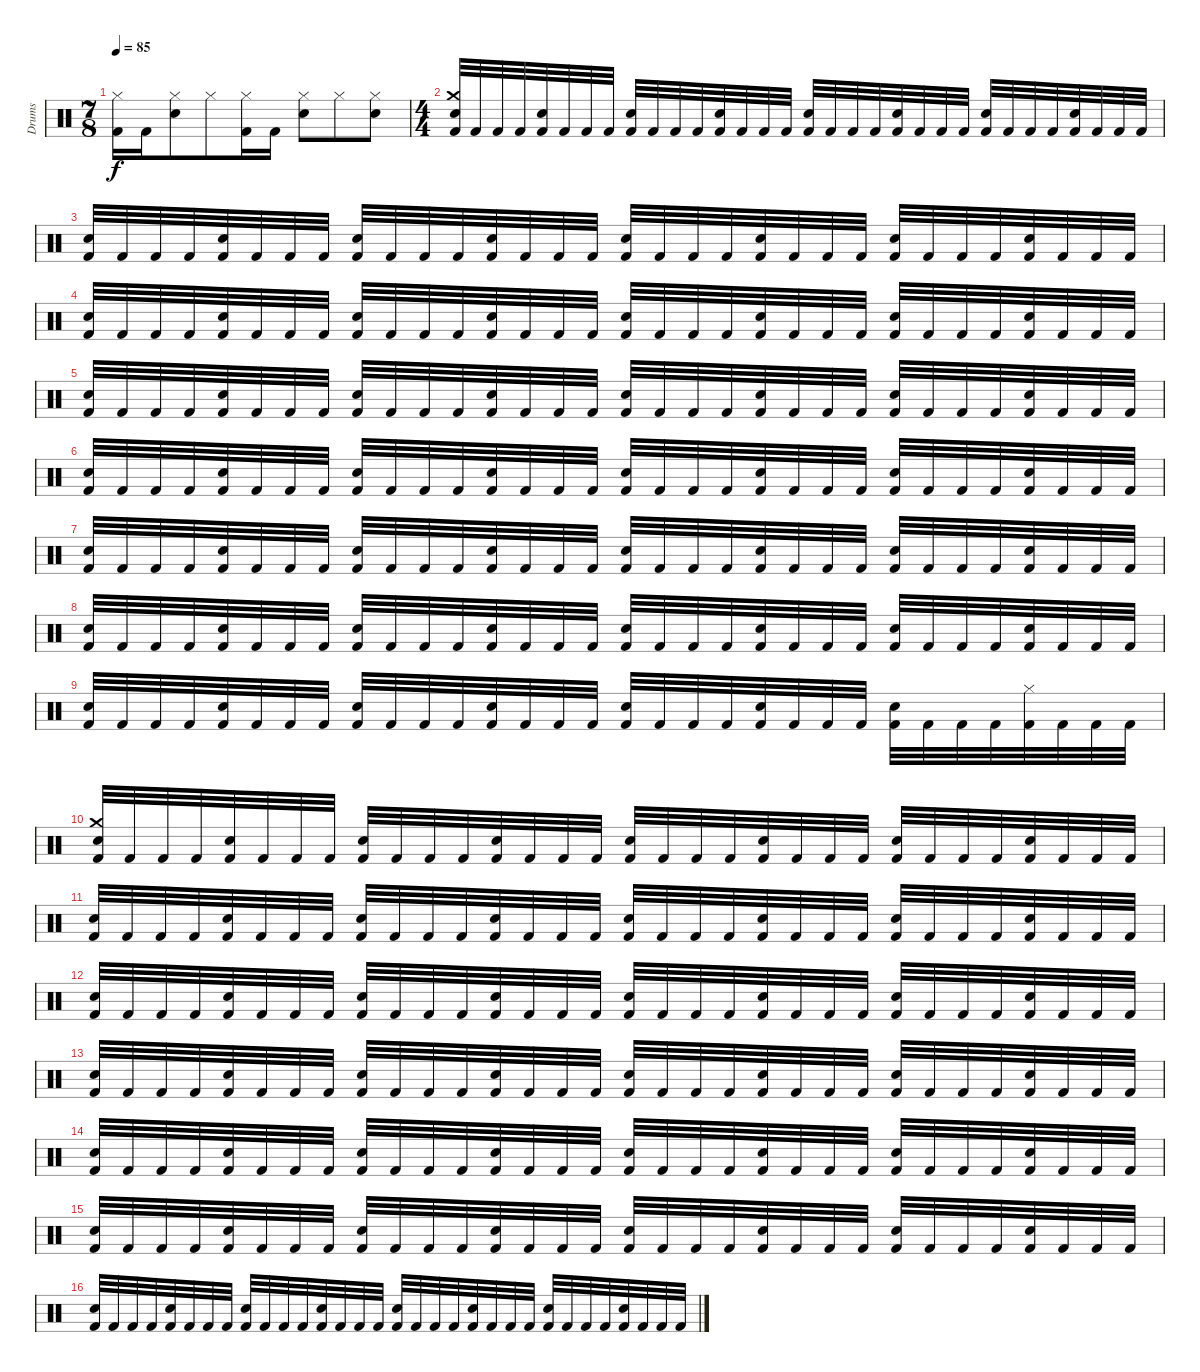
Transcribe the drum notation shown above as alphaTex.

\track ("Drums" "Drums") {instrument percussion}
\staff {score}
\articulation defaults
\ts (7 8)
\tempo 85
\clef neutral
\ks c
("Hi-Hat (closed)" "Kick (hit) 2").16{dy f} "Kick (hit) 2".16 ("Hi-Hat (closed)" "Snare (hit) 2").8 "Hi-Hat (closed)".8 ("Hi-Hat (closed)" "Kick (hit) 2").16 "Kick (hit) 2".16 ("Hi-Hat (closed)" "Snare (hit) 2").8 "Hi-Hat (closed)".8 ("Hi-Hat (closed)" "Snare (hit) 2").8 |
\ts (4 4)
("Crash medium (hit)" "Electric Snare (hit)" "Kick (hit) 2").32 "Kick (hit) 2".32 "Kick (hit) 2".32 "Kick (hit) 2".32 ("Electric Snare (hit)" "Kick (hit) 2").32 "Kick (hit) 2".32 "Kick (hit) 2".32 "Kick (hit) 2".32 ("Electric Snare (hit)" "Kick (hit) 2").32 "Kick (hit) 2".32 "Kick (hit) 2".32 "Kick (hit) 2".32 ("Electric Snare (hit)" "Kick (hit) 2").32 "Kick (hit) 2".32 "Kick (hit) 2".32 "Kick (hit) 2".32 ("Electric Snare (hit)" "Kick (hit) 2").32 "Kick (hit) 2".32 "Kick (hit) 2".32 "Kick (hit) 2".32 ("Electric Snare (hit)" "Kick (hit) 2").32 "Kick (hit) 2".32 "Kick (hit) 2".32 "Kick (hit) 2".32 ("Electric Snare (hit)" "Kick (hit) 2").32 "Kick (hit) 2".32 "Kick (hit) 2".32 "Kick (hit) 2".32 ("Electric Snare (hit)" "Kick (hit) 2").32 "Kick (hit) 2".32 "Kick (hit) 2".32 "Kick (hit) 2".32 |
("Electric Snare (hit)" "Kick (hit) 2").32 "Kick (hit) 2".32 "Kick (hit) 2".32 "Kick (hit) 2".32 ("Electric Snare (hit)" "Kick (hit) 2").32 "Kick (hit) 2".32 "Kick (hit) 2".32 "Kick (hit) 2".32 ("Electric Snare (hit)" "Kick (hit) 2").32 "Kick (hit) 2".32 "Kick (hit) 2".32 "Kick (hit) 2".32 ("Electric Snare (hit)" "Kick (hit) 2").32 "Kick (hit) 2".32 "Kick (hit) 2".32 "Kick (hit) 2".32 ("Electric Snare (hit)" "Kick (hit) 2").32 "Kick (hit) 2".32 "Kick (hit) 2".32 "Kick (hit) 2".32 ("Electric Snare (hit)" "Kick (hit) 2").32 "Kick (hit) 2".32 "Kick (hit) 2".32 "Kick (hit) 2".32 ("Electric Snare (hit)" "Kick (hit) 2").32 "Kick (hit) 2".32 "Kick (hit) 2".32 "Kick (hit) 2".32 ("Electric Snare (hit)" "Kick (hit) 2").32 "Kick (hit) 2".32 "Kick (hit) 2".32 "Kick (hit) 2".32 |
("Electric Snare (hit)" "Kick (hit) 2").32 "Kick (hit) 2".32 "Kick (hit) 2".32 "Kick (hit) 2".32 ("Electric Snare (hit)" "Kick (hit) 2").32 "Kick (hit) 2".32 "Kick (hit) 2".32 "Kick (hit) 2".32 ("Electric Snare (hit)" "Kick (hit) 2").32 "Kick (hit) 2".32 "Kick (hit) 2".32 "Kick (hit) 2".32 ("Electric Snare (hit)" "Kick (hit) 2").32 "Kick (hit) 2".32 "Kick (hit) 2".32 "Kick (hit) 2".32 ("Electric Snare (hit)" "Kick (hit) 2").32 "Kick (hit) 2".32 "Kick (hit) 2".32 "Kick (hit) 2".32 ("Electric Snare (hit)" "Kick (hit) 2").32 "Kick (hit) 2".32 "Kick (hit) 2".32 "Kick (hit) 2".32 ("Electric Snare (hit)" "Kick (hit) 2").32 "Kick (hit) 2".32 "Kick (hit) 2".32 "Kick (hit) 2".32 ("Electric Snare (hit)" "Kick (hit) 2").32 "Kick (hit) 2".32 "Kick (hit) 2".32 "Kick (hit) 2".32 |
("Electric Snare (hit)" "Kick (hit) 2").32 "Kick (hit) 2".32 "Kick (hit) 2".32 "Kick (hit) 2".32 ("Electric Snare (hit)" "Kick (hit) 2").32 "Kick (hit) 2".32 "Kick (hit) 2".32 "Kick (hit) 2".32 ("Electric Snare (hit)" "Kick (hit) 2").32 "Kick (hit) 2".32 "Kick (hit) 2".32 "Kick (hit) 2".32 ("Electric Snare (hit)" "Kick (hit) 2").32 "Kick (hit) 2".32 "Kick (hit) 2".32 "Kick (hit) 2".32 ("Electric Snare (hit)" "Kick (hit) 2").32 "Kick (hit) 2".32 "Kick (hit) 2".32 "Kick (hit) 2".32 ("Electric Snare (hit)" "Kick (hit) 2").32 "Kick (hit) 2".32 "Kick (hit) 2".32 "Kick (hit) 2".32 ("Electric Snare (hit)" "Kick (hit) 2").32 "Kick (hit) 2".32 "Kick (hit) 2".32 "Kick (hit) 2".32 ("Electric Snare (hit)" "Kick (hit) 2").32 "Kick (hit) 2".32 "Kick (hit) 2".32 "Kick (hit) 2".32 |
("Electric Snare (hit)" "Kick (hit) 2").32 "Kick (hit) 2".32 "Kick (hit) 2".32 "Kick (hit) 2".32 ("Electric Snare (hit)" "Kick (hit) 2").32 "Kick (hit) 2".32 "Kick (hit) 2".32 "Kick (hit) 2".32 ("Electric Snare (hit)" "Kick (hit) 2").32 "Kick (hit) 2".32 "Kick (hit) 2".32 "Kick (hit) 2".32 ("Electric Snare (hit)" "Kick (hit) 2").32 "Kick (hit) 2".32 "Kick (hit) 2".32 "Kick (hit) 2".32 ("Electric Snare (hit)" "Kick (hit) 2").32 "Kick (hit) 2".32 "Kick (hit) 2".32 "Kick (hit) 2".32 ("Electric Snare (hit)" "Kick (hit) 2").32 "Kick (hit) 2".32 "Kick (hit) 2".32 "Kick (hit) 2".32 ("Electric Snare (hit)" "Kick (hit) 2").32 "Kick (hit) 2".32 "Kick (hit) 2".32 "Kick (hit) 2".32 ("Electric Snare (hit)" "Kick (hit) 2").32 "Kick (hit) 2".32 "Kick (hit) 2".32 "Kick (hit) 2".32 |
("Electric Snare (hit)" "Kick (hit) 2").32 "Kick (hit) 2".32 "Kick (hit) 2".32 "Kick (hit) 2".32 ("Electric Snare (hit)" "Kick (hit) 2").32 "Kick (hit) 2".32 "Kick (hit) 2".32 "Kick (hit) 2".32 ("Electric Snare (hit)" "Kick (hit) 2").32 "Kick (hit) 2".32 "Kick (hit) 2".32 "Kick (hit) 2".32 ("Electric Snare (hit)" "Kick (hit) 2").32 "Kick (hit) 2".32 "Kick (hit) 2".32 "Kick (hit) 2".32 ("Electric Snare (hit)" "Kick (hit) 2").32 "Kick (hit) 2".32 "Kick (hit) 2".32 "Kick (hit) 2".32 ("Electric Snare (hit)" "Kick (hit) 2").32 "Kick (hit) 2".32 "Kick (hit) 2".32 "Kick (hit) 2".32 ("Electric Snare (hit)" "Kick (hit) 2").32 "Kick (hit) 2".32 "Kick (hit) 2".32 "Kick (hit) 2".32 ("Electric Snare (hit)" "Kick (hit) 2").32 "Kick (hit) 2".32 "Kick (hit) 2".32 "Kick (hit) 2".32 |
("Electric Snare (hit)" "Kick (hit) 2").32 "Kick (hit) 2".32 "Kick (hit) 2".32 "Kick (hit) 2".32 ("Electric Snare (hit)" "Kick (hit) 2").32 "Kick (hit) 2".32 "Kick (hit) 2".32 "Kick (hit) 2".32 ("Electric Snare (hit)" "Kick (hit) 2").32 "Kick (hit) 2".32 "Kick (hit) 2".32 "Kick (hit) 2".32 ("Electric Snare (hit)" "Kick (hit) 2").32 "Kick (hit) 2".32 "Kick (hit) 2".32 "Kick (hit) 2".32 ("Electric Snare (hit)" "Kick (hit) 2").32 "Kick (hit) 2".32 "Kick (hit) 2".32 "Kick (hit) 2".32 ("Electric Snare (hit)" "Kick (hit) 2").32 "Kick (hit) 2".32 "Kick (hit) 2".32 "Kick (hit) 2".32 ("Electric Snare (hit)" "Kick (hit) 2").32 "Kick (hit) 2".32 "Kick (hit) 2".32 "Kick (hit) 2".32 ("Electric Snare (hit)" "Kick (hit) 2").32 "Kick (hit) 2".32 "Kick (hit) 2".32 "Kick (hit) 2".32 |
("Electric Snare (hit)" "Kick (hit) 2").32 "Kick (hit) 2".32 "Kick (hit) 2".32 "Kick (hit) 2".32 ("Electric Snare (hit)" "Kick (hit) 2").32 "Kick (hit) 2".32 "Kick (hit) 2".32 "Kick (hit) 2".32 ("Electric Snare (hit)" "Kick (hit) 2").32 "Kick (hit) 2".32 "Kick (hit) 2".32 "Kick (hit) 2".32 ("Electric Snare (hit)" "Kick (hit) 2").32 "Kick (hit) 2".32 "Kick (hit) 2".32 "Kick (hit) 2".32 ("Electric Snare (hit)" "Kick (hit) 2").32 "Kick (hit) 2".32 "Kick (hit) 2".32 "Kick (hit) 2".32 ("Electric Snare (hit)" "Kick (hit) 2").32 "Kick (hit) 2".32 "Kick (hit) 2".32 "Kick (hit) 2".32 ("Electric Snare (hit)" "Kick (hit) 2").32 "Kick (hit) 2".32 "Kick (hit) 2".32 "Kick (hit) 2".32 ("Hi-Hat (closed)" "Kick (hit) 2").32 "Kick (hit) 2".32 "Kick (hit) 2".32 "Kick (hit) 2".32 |
("Crash medium (hit)" "Electric Snare (hit)" "Kick (hit) 2").32 "Kick (hit) 2".32 "Kick (hit) 2".32 "Kick (hit) 2".32 ("Electric Snare (hit)" "Kick (hit) 2").32 "Kick (hit) 2".32 "Kick (hit) 2".32 "Kick (hit) 2".32 ("Electric Snare (hit)" "Kick (hit) 2").32 "Kick (hit) 2".32 "Kick (hit) 2".32 "Kick (hit) 2".32 ("Electric Snare (hit)" "Kick (hit) 2").32 "Kick (hit) 2".32 "Kick (hit) 2".32 "Kick (hit) 2".32 ("Electric Snare (hit)" "Kick (hit) 2").32 "Kick (hit) 2".32 "Kick (hit) 2".32 "Kick (hit) 2".32 ("Electric Snare (hit)" "Kick (hit) 2").32 "Kick (hit) 2".32 "Kick (hit) 2".32 "Kick (hit) 2".32 ("Electric Snare (hit)" "Kick (hit) 2").32 "Kick (hit) 2".32 "Kick (hit) 2".32 "Kick (hit) 2".32 ("Electric Snare (hit)" "Kick (hit) 2").32 "Kick (hit) 2".32 "Kick (hit) 2".32 "Kick (hit) 2".32 |
("Electric Snare (hit)" "Kick (hit) 2").32 "Kick (hit) 2".32 "Kick (hit) 2".32 "Kick (hit) 2".32 ("Electric Snare (hit)" "Kick (hit) 2").32 "Kick (hit) 2".32 "Kick (hit) 2".32 "Kick (hit) 2".32 ("Electric Snare (hit)" "Kick (hit) 2").32 "Kick (hit) 2".32 "Kick (hit) 2".32 "Kick (hit) 2".32 ("Electric Snare (hit)" "Kick (hit) 2").32 "Kick (hit) 2".32 "Kick (hit) 2".32 "Kick (hit) 2".32 ("Electric Snare (hit)" "Kick (hit) 2").32 "Kick (hit) 2".32 "Kick (hit) 2".32 "Kick (hit) 2".32 ("Electric Snare (hit)" "Kick (hit) 2").32 "Kick (hit) 2".32 "Kick (hit) 2".32 "Kick (hit) 2".32 ("Electric Snare (hit)" "Kick (hit) 2").32 "Kick (hit) 2".32 "Kick (hit) 2".32 "Kick (hit) 2".32 ("Electric Snare (hit)" "Kick (hit) 2").32 "Kick (hit) 2".32 "Kick (hit) 2".32 "Kick (hit) 2".32 |
("Electric Snare (hit)" "Kick (hit) 2").32 "Kick (hit) 2".32 "Kick (hit) 2".32 "Kick (hit) 2".32 ("Electric Snare (hit)" "Kick (hit) 2").32 "Kick (hit) 2".32 "Kick (hit) 2".32 "Kick (hit) 2".32 ("Electric Snare (hit)" "Kick (hit) 2").32 "Kick (hit) 2".32 "Kick (hit) 2".32 "Kick (hit) 2".32 ("Electric Snare (hit)" "Kick (hit) 2").32 "Kick (hit) 2".32 "Kick (hit) 2".32 "Kick (hit) 2".32 ("Electric Snare (hit)" "Kick (hit) 2").32 "Kick (hit) 2".32 "Kick (hit) 2".32 "Kick (hit) 2".32 ("Electric Snare (hit)" "Kick (hit) 2").32 "Kick (hit) 2".32 "Kick (hit) 2".32 "Kick (hit) 2".32 ("Electric Snare (hit)" "Kick (hit) 2").32 "Kick (hit) 2".32 "Kick (hit) 2".32 "Kick (hit) 2".32 ("Electric Snare (hit)" "Kick (hit) 2").32 "Kick (hit) 2".32 "Kick (hit) 2".32 "Kick (hit) 2".32 |
("Electric Snare (hit)" "Kick (hit) 2").32 "Kick (hit) 2".32 "Kick (hit) 2".32 "Kick (hit) 2".32 ("Electric Snare (hit)" "Kick (hit) 2").32 "Kick (hit) 2".32 "Kick (hit) 2".32 "Kick (hit) 2".32 ("Electric Snare (hit)" "Kick (hit) 2").32 "Kick (hit) 2".32 "Kick (hit) 2".32 "Kick (hit) 2".32 ("Electric Snare (hit)" "Kick (hit) 2").32 "Kick (hit) 2".32 "Kick (hit) 2".32 "Kick (hit) 2".32 ("Electric Snare (hit)" "Kick (hit) 2").32 "Kick (hit) 2".32 "Kick (hit) 2".32 "Kick (hit) 2".32 ("Electric Snare (hit)" "Kick (hit) 2").32 "Kick (hit) 2".32 "Kick (hit) 2".32 "Kick (hit) 2".32 ("Electric Snare (hit)" "Kick (hit) 2").32 "Kick (hit) 2".32 "Kick (hit) 2".32 "Kick (hit) 2".32 ("Electric Snare (hit)" "Kick (hit) 2").32 "Kick (hit) 2".32 "Kick (hit) 2".32 "Kick (hit) 2".32 |
("Electric Snare (hit)" "Kick (hit) 2").32 "Kick (hit) 2".32 "Kick (hit) 2".32 "Kick (hit) 2".32 ("Electric Snare (hit)" "Kick (hit) 2").32 "Kick (hit) 2".32 "Kick (hit) 2".32 "Kick (hit) 2".32 ("Electric Snare (hit)" "Kick (hit) 2").32 "Kick (hit) 2".32 "Kick (hit) 2".32 "Kick (hit) 2".32 ("Electric Snare (hit)" "Kick (hit) 2").32 "Kick (hit) 2".32 "Kick (hit) 2".32 "Kick (hit) 2".32 ("Electric Snare (hit)" "Kick (hit) 2").32 "Kick (hit) 2".32 "Kick (hit) 2".32 "Kick (hit) 2".32 ("Electric Snare (hit)" "Kick (hit) 2").32 "Kick (hit) 2".32 "Kick (hit) 2".32 "Kick (hit) 2".32 ("Electric Snare (hit)" "Kick (hit) 2").32 "Kick (hit) 2".32 "Kick (hit) 2".32 "Kick (hit) 2".32 ("Electric Snare (hit)" "Kick (hit) 2").32 "Kick (hit) 2".32 "Kick (hit) 2".32 "Kick (hit) 2".32 |
("Electric Snare (hit)" "Kick (hit) 2").32 "Kick (hit) 2".32 "Kick (hit) 2".32 "Kick (hit) 2".32 ("Electric Snare (hit)" "Kick (hit) 2").32 "Kick (hit) 2".32 "Kick (hit) 2".32 "Kick (hit) 2".32 ("Electric Snare (hit)" "Kick (hit) 2").32 "Kick (hit) 2".32 "Kick (hit) 2".32 "Kick (hit) 2".32 ("Electric Snare (hit)" "Kick (hit) 2").32 "Kick (hit) 2".32 "Kick (hit) 2".32 "Kick (hit) 2".32 ("Electric Snare (hit)" "Kick (hit) 2").32 "Kick (hit) 2".32 "Kick (hit) 2".32 "Kick (hit) 2".32 ("Electric Snare (hit)" "Kick (hit) 2").32 "Kick (hit) 2".32 "Kick (hit) 2".32 "Kick (hit) 2".32 ("Electric Snare (hit)" "Kick (hit) 2").32 "Kick (hit) 2".32 "Kick (hit) 2".32 "Kick (hit) 2".32 ("Electric Snare (hit)" "Kick (hit) 2").32 "Kick (hit) 2".32 "Kick (hit) 2".32 "Kick (hit) 2".32 |
("Electric Snare (hit)" "Kick (hit) 2").32 "Kick (hit) 2".32 "Kick (hit) 2".32 "Kick (hit) 2".32 ("Electric Snare (hit)" "Kick (hit) 2").32 "Kick (hit) 2".32 "Kick (hit) 2".32 "Kick (hit) 2".32 ("Electric Snare (hit)" "Kick (hit) 2").32 "Kick (hit) 2".32 "Kick (hit) 2".32 "Kick (hit) 2".32 ("Electric Snare (hit)" "Kick (hit) 2").32 "Kick (hit) 2".32 "Kick (hit) 2".32 "Kick (hit) 2".32 ("Electric Snare (hit)" "Kick (hit) 2").32 "Kick (hit) 2".32 "Kick (hit) 2".32 "Kick (hit) 2".32 ("Electric Snare (hit)" "Kick (hit) 2").32 "Kick (hit) 2".32 "Kick (hit) 2".32 "Kick (hit) 2".32 ("Electric Snare (hit)" "Kick (hit) 2").32 "Kick (hit) 2".32 "Kick (hit) 2".32 "Kick (hit) 2".32 ("Electric Snare (hit)" "Kick (hit) 2").32 "Kick (hit) 2".32 "Kick (hit) 2".32 "Kick (hit) 2".32
